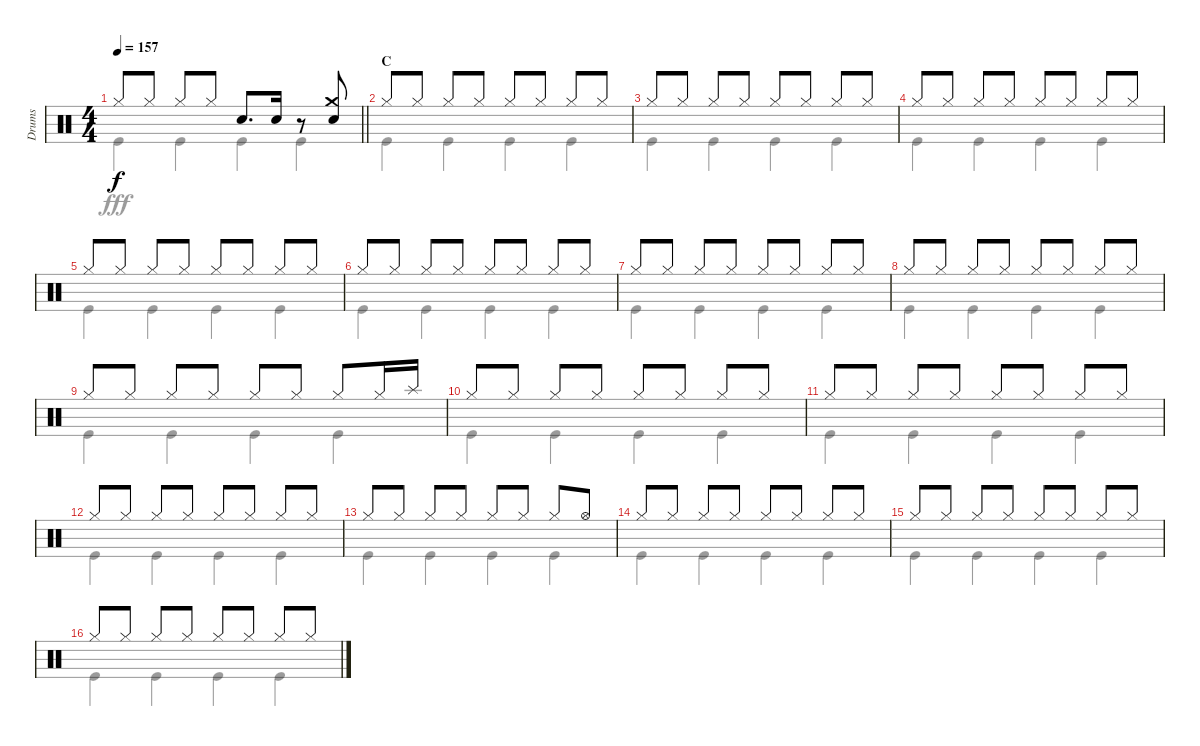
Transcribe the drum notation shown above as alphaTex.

\track ("Drums" "Drums") {instrument percussion}
\staff {score}
\articulation defaults
\voice
\ts (4 4)
\tempo 157
\clef neutral
\barLineRight lightlight
\ks c "Hi-Hat (closed)".8{dy f} "Hi-Hat (closed)".8 "Hi-Hat (closed)".8 "Hi-Hat (closed)".8 "Snare (hit) 2".8{d} "Snare (hit) 2".16
r.8 ("Crash medium (hit)" "Snare (hit) 2").8 |
\section ("" "C")
"Hi-Hat (closed)".8 "Hi-Hat (closed)".8 "Hi-Hat (closed)".8 "Hi-Hat (closed)".8 "Hi-Hat (closed)".8 "Hi-Hat (closed)".8 "Hi-Hat (closed)".8 "Hi-Hat (closed)".8 |
"Hi-Hat (closed)".8 "Hi-Hat (closed)".8 "Hi-Hat (closed)".8 "Hi-Hat (closed)".8 "Hi-Hat (closed)".8 "Hi-Hat (closed)".8 "Hi-Hat (closed)".8 "Hi-Hat (closed)".8 |
"Hi-Hat (closed)".8 "Hi-Hat (closed)".8 "Hi-Hat (closed)".8 "Hi-Hat (closed)".8 "Hi-Hat (closed)".8 "Hi-Hat (closed)".8 "Hi-Hat (closed)".8 "Hi-Hat (closed)".8 |
"Hi-Hat (closed)".8 "Hi-Hat (closed)".8 "Hi-Hat (closed)".8 "Hi-Hat (closed)".8 "Hi-Hat (closed)".8 "Hi-Hat (closed)".8 "Hi-Hat (closed)".8 "Hi-Hat (closed)".8 |
"Hi-Hat (closed)".8 "Hi-Hat (closed)".8 "Hi-Hat (closed)".8 "Hi-Hat (closed)".8 "Hi-Hat (closed)".8 "Hi-Hat (closed)".8 "Hi-Hat (closed)".8 "Hi-Hat (closed)".8 |
"Hi-Hat (closed)".8 "Hi-Hat (closed)".8 "Hi-Hat (closed)".8 "Hi-Hat (closed)".8 "Hi-Hat (closed)".8 "Hi-Hat (closed)".8 "Hi-Hat (closed)".8 "Hi-Hat (closed)".8 |
"Hi-Hat (closed)".8 "Hi-Hat (closed)".8 "Hi-Hat (closed)".8 "Hi-Hat (closed)".8 "Hi-Hat (closed)".8 "Hi-Hat (closed)".8 "Hi-Hat (closed)".8 "Hi-Hat (closed)".8 |
"Hi-Hat (closed)".8 "Hi-Hat (closed)".8 "Hi-Hat (closed)".8 "Hi-Hat (closed)".8 "Hi-Hat (closed)".8 "Hi-Hat (closed)".8 "Hi-Hat (closed)".8 "Hi-Hat (closed)".16 "Splash (hit)".16 |
"Hi-Hat (closed)".8 "Hi-Hat (closed)".8 "Hi-Hat (closed)".8 "Hi-Hat (closed)".8 "Hi-Hat (closed)".8 "Hi-Hat (closed)".8 "Hi-Hat (closed)".8 "Hi-Hat (closed)".8 |
"Hi-Hat (closed)".8 "Hi-Hat (closed)".8 "Hi-Hat (closed)".8 "Hi-Hat (closed)".8 "Hi-Hat (closed)".8 "Hi-Hat (closed)".8 "Hi-Hat (closed)".8 "Hi-Hat (closed)".8 |
"Hi-Hat (closed)".8 "Hi-Hat (closed)".8 "Hi-Hat (closed)".8 "Hi-Hat (closed)".8 "Hi-Hat (closed)".8 "Hi-Hat (closed)".8 "Hi-Hat (closed)".8 "Hi-Hat (closed)".8 |
"Hi-Hat (closed)".8 "Hi-Hat (closed)".8 "Hi-Hat (closed)".8 "Hi-Hat (closed)".8 "Hi-Hat (closed)".8 "Hi-Hat (closed)".8 "Hi-Hat (closed)".8 "Hi-Hat (open)".8 |
"Hi-Hat (closed)".8 "Hi-Hat (closed)".8 "Hi-Hat (closed)".8 "Hi-Hat (closed)".8 "Hi-Hat (closed)".8 "Hi-Hat (closed)".8 "Hi-Hat (closed)".8 "Hi-Hat (closed)".8 |
"Hi-Hat (closed)".8 "Hi-Hat (closed)".8 "Hi-Hat (closed)".8 "Hi-Hat (closed)".8 "Hi-Hat (closed)".8 "Hi-Hat (closed)".8 "Hi-Hat (closed)".8 "Hi-Hat (closed)".8 |
"Hi-Hat (closed)".8 "Hi-Hat (closed)".8 "Hi-Hat (closed)".8 "Hi-Hat (closed)".8 "Hi-Hat (closed)".8 "Hi-Hat (closed)".8 "Hi-Hat (closed)".8 "Hi-Hat (closed)".8
\voice
\clef neutral
\ottava regular
\simile none
\barLineRight lightlight
\ks c "Kick (hit)".4{dy fff} "Kick (hit)".4 "Kick (hit)".4 "Kick (hit)".4
|
"Kick (hit)".4 "Kick (hit)".4 "Kick (hit)".4 "Kick (hit)".4 |
"Kick (hit)".4 "Kick (hit)".4 "Kick (hit)".4 "Kick (hit)".4 |
"Kick (hit)".4 "Kick (hit)".4 "Kick (hit)".4 "Kick (hit)".4 |
"Kick (hit)".4 "Kick (hit)".4 "Kick (hit)".4 "Kick (hit)".4 |
"Kick (hit)".4 "Kick (hit)".4 "Kick (hit)".4 "Kick (hit)".4 |
"Kick (hit)".4 "Kick (hit)".4 "Kick (hit)".4 "Kick (hit)".4 |
"Kick (hit)".4 "Kick (hit)".4 "Kick (hit)".4 "Kick (hit)".4 |
"Kick (hit)".4 "Kick (hit)".4 "Kick (hit)".4 "Kick (hit)".4 |
"Kick (hit)".4 "Kick (hit)".4 "Kick (hit)".4 "Kick (hit)".4 |
"Kick (hit)".4 "Kick (hit)".4 "Kick (hit)".4 "Kick (hit)".4 |
"Kick (hit)".4 "Kick (hit)".4 "Kick (hit)".4 "Kick (hit)".4 |
"Kick (hit)".4 "Kick (hit)".4 "Kick (hit)".4 "Kick (hit)".4 |
"Kick (hit)".4 "Kick (hit)".4 "Kick (hit)".4 "Kick (hit)".4 |
"Kick (hit)".4 "Kick (hit)".4 "Kick (hit)".4 "Kick (hit)".4 |
"Kick (hit)".4 "Kick (hit)".4 "Kick (hit)".4 "Kick (hit)".4
